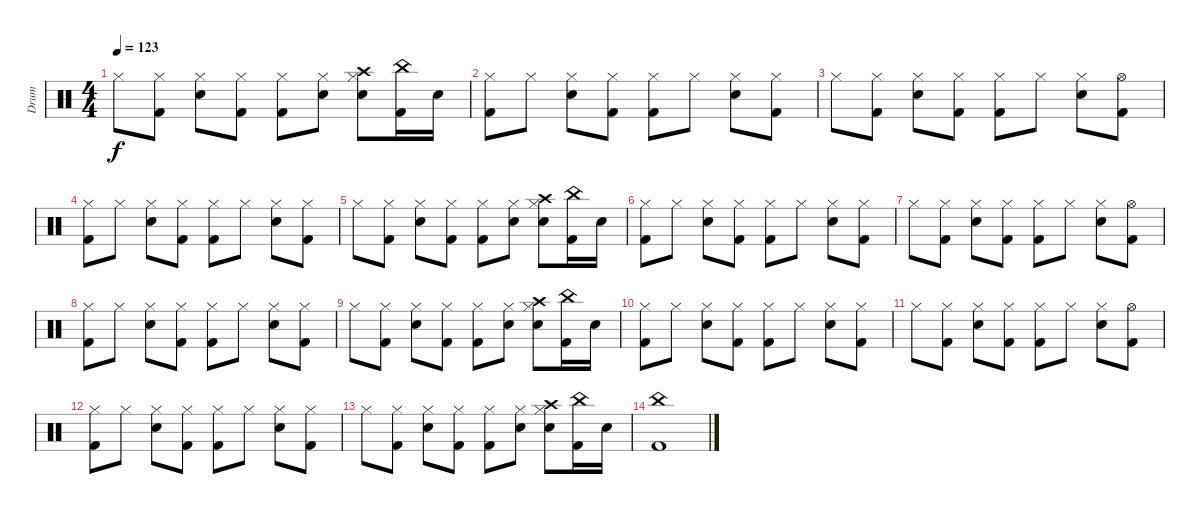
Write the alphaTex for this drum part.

\track ("Drum" "Drum") {instrument percussion}
\staff {score}
\articulation defaults
\ts (4 4)
\tempo 123
\clef neutral
\ks c "Hi-Hat (closed)".8{dy f}
("Hi-Hat (closed)" "Kick (hit) 2").8 ("Hi-Hat (closed)" "Electric Snare (hit)").8 ("Hi-Hat (closed)" "Kick (hit) 2").8 ("Hi-Hat (closed)" "Kick (hit) 2").8 ("Hi-Hat (closed)" "Electric Snare (hit)").8 ("Crash high (hit)" "Hi-Hat (closed)" "Electric Snare (hit)").8 ("China (hit)" "Kick (hit) 2").16 "Electric Snare (hit)".16 |
("Hi-Hat (closed)" "Kick (hit) 2").8 "Hi-Hat (closed)".8 ("Hi-Hat (closed)" "Electric Snare (hit)").8 ("Hi-Hat (closed)" "Kick (hit) 2").8 ("Hi-Hat (closed)" "Kick (hit) 2").8 "Hi-Hat (closed)".8 ("Hi-Hat (closed)" "Electric Snare (hit)").8 ("Hi-Hat (closed)" "Kick (hit) 2").8 |
"Hi-Hat (closed)".8 ("Hi-Hat (closed)" "Kick (hit) 2").8 ("Hi-Hat (closed)" "Electric Snare (hit)").8 ("Hi-Hat (closed)" "Kick (hit) 2").8 ("Hi-Hat (closed)" "Kick (hit) 2").8 "Hi-Hat (closed)".8 ("Hi-Hat (closed)" "Electric Snare (hit)").8 ("Hi-Hat (open)" "Kick (hit) 2").8 |
("Hi-Hat (closed)" "Kick (hit) 2").8 "Hi-Hat (closed)".8 ("Hi-Hat (closed)" "Electric Snare (hit)").8 ("Hi-Hat (closed)" "Kick (hit) 2").8 ("Hi-Hat (closed)" "Kick (hit) 2").8 "Hi-Hat (closed)".8 ("Hi-Hat (closed)" "Electric Snare (hit)").8 ("Hi-Hat (closed)" "Kick (hit) 2").8 |
"Hi-Hat (closed)".8 ("Hi-Hat (closed)" "Kick (hit) 2").8 ("Hi-Hat (closed)" "Electric Snare (hit)").8 ("Hi-Hat (closed)" "Kick (hit) 2").8 ("Hi-Hat (closed)" "Kick (hit) 2").8 ("Hi-Hat (closed)" "Electric Snare (hit)").8 ("Crash high (hit)" "Hi-Hat (closed)" "Electric Snare (hit)").8 ("China (hit)" "Kick (hit) 2").16 "Electric Snare (hit)".16 |
("Hi-Hat (closed)" "Kick (hit) 2").8 "Hi-Hat (closed)".8 ("Hi-Hat (closed)" "Electric Snare (hit)").8 ("Hi-Hat (closed)" "Kick (hit) 2").8 ("Hi-Hat (closed)" "Kick (hit) 2").8 "Hi-Hat (closed)".8 ("Hi-Hat (closed)" "Electric Snare (hit)").8 ("Hi-Hat (closed)" "Kick (hit) 2").8 |
"Hi-Hat (closed)".8 ("Hi-Hat (closed)" "Kick (hit) 2").8 ("Hi-Hat (closed)" "Electric Snare (hit)").8 ("Hi-Hat (closed)" "Kick (hit) 2").8 ("Hi-Hat (closed)" "Kick (hit) 2").8 "Hi-Hat (closed)".8 ("Hi-Hat (closed)" "Electric Snare (hit)").8 ("Hi-Hat (open)" "Kick (hit) 2").8 |
("Hi-Hat (closed)" "Kick (hit) 2").8 "Hi-Hat (closed)".8 ("Hi-Hat (closed)" "Electric Snare (hit)").8 ("Hi-Hat (closed)" "Kick (hit) 2").8 ("Hi-Hat (closed)" "Kick (hit) 2").8 "Hi-Hat (closed)".8 ("Hi-Hat (closed)" "Electric Snare (hit)").8 ("Hi-Hat (closed)" "Kick (hit) 2").8 |
"Hi-Hat (closed)".8 ("Hi-Hat (closed)" "Kick (hit) 2").8 ("Hi-Hat (closed)" "Electric Snare (hit)").8 ("Hi-Hat (closed)" "Kick (hit) 2").8 ("Hi-Hat (closed)" "Kick (hit) 2").8 ("Hi-Hat (closed)" "Electric Snare (hit)").8 ("Crash high (hit)" "Hi-Hat (closed)" "Electric Snare (hit)").8 ("China (hit)" "Kick (hit) 2").16 "Electric Snare (hit)".16 |
("Hi-Hat (closed)" "Kick (hit) 2").8 "Hi-Hat (closed)".8 ("Hi-Hat (closed)" "Electric Snare (hit)").8 ("Hi-Hat (closed)" "Kick (hit) 2").8 ("Hi-Hat (closed)" "Kick (hit) 2").8 "Hi-Hat (closed)".8 ("Hi-Hat (closed)" "Electric Snare (hit)").8 ("Hi-Hat (closed)" "Kick (hit) 2").8 |
"Hi-Hat (closed)".8 ("Hi-Hat (closed)" "Kick (hit) 2").8 ("Hi-Hat (closed)" "Electric Snare (hit)").8 ("Hi-Hat (closed)" "Kick (hit) 2").8 ("Hi-Hat (closed)" "Kick (hit) 2").8 "Hi-Hat (closed)".8 ("Hi-Hat (closed)" "Electric Snare (hit)").8 ("Hi-Hat (open)" "Kick (hit) 2").8 |
("Hi-Hat (closed)" "Kick (hit) 2").8 "Hi-Hat (closed)".8 ("Hi-Hat (closed)" "Electric Snare (hit)").8 ("Hi-Hat (closed)" "Kick (hit) 2").8 ("Hi-Hat (closed)" "Kick (hit) 2").8 "Hi-Hat (closed)".8 ("Hi-Hat (closed)" "Electric Snare (hit)").8 ("Hi-Hat (closed)" "Kick (hit) 2").8 |
"Hi-Hat (closed)".8 ("Hi-Hat (closed)" "Kick (hit) 2").8 ("Hi-Hat (closed)" "Electric Snare (hit)").8 ("Hi-Hat (closed)" "Kick (hit) 2").8 ("Hi-Hat (closed)" "Kick (hit) 2").8 ("Hi-Hat (closed)" "Electric Snare (hit)").8 ("Crash high (hit)" "Hi-Hat (closed)" "Electric Snare (hit)").8 ("China (hit)" "Kick (hit) 2").16 "Electric Snare (hit)".16 |
("China (hit)" "Kick (hit) 2").1
